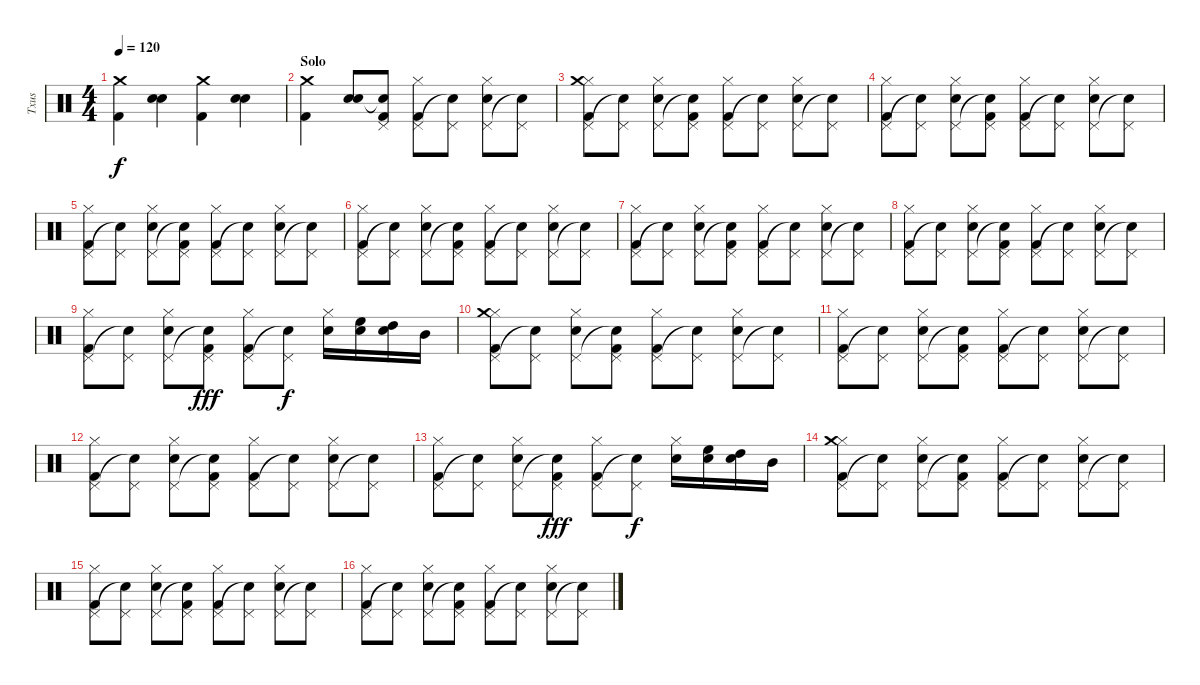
\track ("Txus" "Txus") {instrument percussion}
\staff {score}
\articulation defaults
\ts (4 4)
\tempo 120
\clef neutral
\ks c
("Crash medium (hit)" "Kick (hit) 2").4{dy f} ("Snare (hit) 2" "Snare (hit) 2").4 ("Crash medium (hit)" "Kick (hit) 2").4 ("Snare (hit) 2" "Snare (hit) 2").4 |
\section ("" "Solo")
("Crash medium (hit)" "Kick (hit) 2").4 ("Snare (hit) 2" "Snare (hit) 2").8 ("Pedal Hi-Hat (hit)" "Snare (hit)"{t} "Kick (hit) 2").8 ("Hi-Hat (closed)" "Pedal Hi-Hat (hit)" "Kick (hit) 2").8 ("Pedal Hi-Hat (hit)" "Snare (hit)"{t}).8 ("Hi-Hat (closed)" "Pedal Hi-Hat (hit)" "Snare (hit) 2").8 ("Pedal Hi-Hat (hit)" "Snare (hit) 2"{t}).8 |
("Hi-Hat (closed)" "Pedal Hi-Hat (hit)" "Crash medium (hit)" "Kick (hit) 2").8 ("Pedal Hi-Hat (hit)" "Snare (hit)"{t}).8 ("Hi-Hat (closed)" "Pedal Hi-Hat (hit)" "Snare (hit) 2").8 ("Pedal Hi-Hat (hit)" "Snare (hit)"{t} "Kick (hit) 2").8 ("Hi-Hat (closed)" "Pedal Hi-Hat (hit)" "Kick (hit) 2").8 ("Pedal Hi-Hat (hit)" "Snare (hit)"{t}).8 ("Hi-Hat (closed)" "Pedal Hi-Hat (hit)" "Snare (hit) 2").8 ("Pedal Hi-Hat (hit)" "Snare (hit) 2"{t}).8 |
("Hi-Hat (closed)" "Pedal Hi-Hat (hit)" "Kick (hit) 2").8 ("Pedal Hi-Hat (hit)" "Snare (hit)"{t}).8 ("Hi-Hat (closed)" "Pedal Hi-Hat (hit)" "Snare (hit) 2").8 ("Pedal Hi-Hat (hit)" "Snare (hit)"{t} "Kick (hit) 2").8 ("Hi-Hat (closed)" "Pedal Hi-Hat (hit)" "Kick (hit) 2").8 ("Pedal Hi-Hat (hit)" "Snare (hit)"{t}).8 ("Hi-Hat (closed)" "Pedal Hi-Hat (hit)" "Snare (hit) 2").8 ("Pedal Hi-Hat (hit)" "Snare (hit) 2"{t}).8 |
("Hi-Hat (closed)" "Pedal Hi-Hat (hit)" "Kick (hit) 2").8 ("Pedal Hi-Hat (hit)" "Snare (hit)"{t}).8 ("Hi-Hat (closed)" "Pedal Hi-Hat (hit)" "Snare (hit) 2").8 ("Pedal Hi-Hat (hit)" "Snare (hit)"{t} "Kick (hit) 2").8 ("Hi-Hat (closed)" "Pedal Hi-Hat (hit)" "Kick (hit) 2").8 ("Pedal Hi-Hat (hit)" "Snare (hit)"{t}).8 ("Hi-Hat (closed)" "Pedal Hi-Hat (hit)" "Snare (hit) 2").8 ("Pedal Hi-Hat (hit)" "Snare (hit) 2"{t}).8 |
("Hi-Hat (closed)" "Pedal Hi-Hat (hit)" "Kick (hit) 2").8 ("Pedal Hi-Hat (hit)" "Snare (hit)"{t}).8 ("Hi-Hat (closed)" "Pedal Hi-Hat (hit)" "Snare (hit) 2").8 ("Pedal Hi-Hat (hit)" "Snare (hit)"{t} "Kick (hit) 2").8 ("Hi-Hat (closed)" "Pedal Hi-Hat (hit)" "Kick (hit) 2").8 ("Pedal Hi-Hat (hit)" "Snare (hit)"{t}).8 ("Hi-Hat (closed)" "Pedal Hi-Hat (hit)" "Snare (hit) 2").8 ("Pedal Hi-Hat (hit)" "Snare (hit) 2"{t}).8 |
("Hi-Hat (closed)" "Pedal Hi-Hat (hit)" "Kick (hit) 2").8 ("Pedal Hi-Hat (hit)" "Snare (hit)"{t}).8 ("Hi-Hat (closed)" "Pedal Hi-Hat (hit)" "Snare (hit) 2").8 ("Pedal Hi-Hat (hit)" "Snare (hit)"{t} "Kick (hit) 2").8 ("Hi-Hat (closed)" "Pedal Hi-Hat (hit)" "Kick (hit) 2").8 ("Pedal Hi-Hat (hit)" "Snare (hit)"{t}).8 ("Hi-Hat (closed)" "Pedal Hi-Hat (hit)" "Snare (hit) 2").8 ("Pedal Hi-Hat (hit)" "Snare (hit) 2"{t}).8 |
("Hi-Hat (closed)" "Pedal Hi-Hat (hit)" "Kick (hit) 2").8 ("Pedal Hi-Hat (hit)" "Snare (hit)"{t}).8 ("Hi-Hat (closed)" "Pedal Hi-Hat (hit)" "Snare (hit) 2").8 ("Pedal Hi-Hat (hit)" "Snare (hit)"{t} "Kick (hit) 2").8 ("Hi-Hat (closed)" "Pedal Hi-Hat (hit)" "Kick (hit) 2").8 ("Pedal Hi-Hat (hit)" "Snare (hit)"{t}).8 ("Hi-Hat (closed)" "Pedal Hi-Hat (hit)" "Snare (hit) 2").8 ("Pedal Hi-Hat (hit)" "Snare (hit) 2"{t}).8 |
("Hi-Hat (closed)" "Pedal Hi-Hat (hit)" "Kick (hit) 2").8 ("Pedal Hi-Hat (hit)" "Snare (hit)"{t}).8 ("Hi-Hat (closed)" "Pedal Hi-Hat (hit)" "Snare (hit) 2").8 ("Pedal Hi-Hat (hit)" "Snare (hit)"{t} "Kick (hit) 2").8{dy fff} ("Hi-Hat (closed)" "Pedal Hi-Hat (hit)" "Kick (hit) 2").8 ("Pedal Hi-Hat (hit)" "Snare (hit)"{t}).8{dy f} ("Hi-Hat (closed)" "Electric Snare (hit)").16 ("High Floor Tom (hit)" "Snare (hit) 2").16 ("High Tom (hit)" "Snare (hit) 2").16 "Mid Tom (hit)".16 |
("Hi-Hat (closed)" "Pedal Hi-Hat (hit)" "Crash medium (hit)" "Kick (hit) 2").8 ("Pedal Hi-Hat (hit)" "Snare (hit)"{t}).8 ("Hi-Hat (closed)" "Pedal Hi-Hat (hit)" "Snare (hit) 2").8 ("Pedal Hi-Hat (hit)" "Snare (hit)"{t} "Kick (hit) 2").8 ("Hi-Hat (closed)" "Pedal Hi-Hat (hit)" "Kick (hit) 2").8 ("Pedal Hi-Hat (hit)" "Snare (hit)"{t}).8 ("Hi-Hat (closed)" "Pedal Hi-Hat (hit)" "Snare (hit) 2").8 ("Pedal Hi-Hat (hit)" "Snare (hit) 2"{t}).8 |
("Hi-Hat (closed)" "Pedal Hi-Hat (hit)" "Kick (hit) 2").8 ("Pedal Hi-Hat (hit)" "Snare (hit)"{t}).8 ("Hi-Hat (closed)" "Pedal Hi-Hat (hit)" "Snare (hit) 2").8 ("Pedal Hi-Hat (hit)" "Snare (hit)"{t} "Kick (hit) 2").8 ("Hi-Hat (closed)" "Pedal Hi-Hat (hit)" "Kick (hit) 2").8 ("Pedal Hi-Hat (hit)" "Snare (hit)"{t}).8 ("Hi-Hat (closed)" "Pedal Hi-Hat (hit)" "Snare (hit) 2").8 ("Pedal Hi-Hat (hit)" "Snare (hit) 2"{t}).8 |
("Hi-Hat (closed)" "Pedal Hi-Hat (hit)" "Kick (hit) 2").8 ("Pedal Hi-Hat (hit)" "Snare (hit)"{t}).8 ("Hi-Hat (closed)" "Pedal Hi-Hat (hit)" "Snare (hit) 2").8 ("Pedal Hi-Hat (hit)" "Snare (hit)"{t} "Kick (hit) 2").8 ("Hi-Hat (closed)" "Pedal Hi-Hat (hit)" "Kick (hit) 2").8 ("Pedal Hi-Hat (hit)" "Snare (hit)"{t}).8 ("Hi-Hat (closed)" "Pedal Hi-Hat (hit)" "Snare (hit) 2").8 ("Pedal Hi-Hat (hit)" "Snare (hit) 2"{t}).8 |
("Hi-Hat (closed)" "Pedal Hi-Hat (hit)" "Kick (hit) 2").8 ("Pedal Hi-Hat (hit)" "Snare (hit)"{t}).8 ("Hi-Hat (closed)" "Pedal Hi-Hat (hit)" "Snare (hit) 2").8 ("Pedal Hi-Hat (hit)" "Snare (hit)"{t} "Kick (hit) 2").8{dy fff} ("Hi-Hat (closed)" "Pedal Hi-Hat (hit)" "Kick (hit) 2").8 ("Pedal Hi-Hat (hit)" "Snare (hit)"{t}).8{dy f} ("Hi-Hat (closed)" "Electric Snare (hit)").16 ("High Floor Tom (hit)" "Snare (hit) 2").16 ("High Tom (hit)" "Snare (hit) 2").16 "Mid Tom (hit)".16 |
("Hi-Hat (closed)" "Pedal Hi-Hat (hit)" "Crash medium (hit)" "Kick (hit) 2").8 ("Pedal Hi-Hat (hit)" "Snare (hit)"{t}).8 ("Hi-Hat (closed)" "Pedal Hi-Hat (hit)" "Snare (hit) 2").8 ("Pedal Hi-Hat (hit)" "Snare (hit)"{t} "Kick (hit) 2").8 ("Hi-Hat (closed)" "Pedal Hi-Hat (hit)" "Kick (hit) 2").8 ("Pedal Hi-Hat (hit)" "Snare (hit)"{t}).8 ("Hi-Hat (closed)" "Pedal Hi-Hat (hit)" "Snare (hit) 2").8 ("Pedal Hi-Hat (hit)" "Snare (hit) 2"{t}).8 |
("Hi-Hat (closed)" "Pedal Hi-Hat (hit)" "Kick (hit) 2").8 ("Pedal Hi-Hat (hit)" "Snare (hit)"{t}).8 ("Hi-Hat (closed)" "Pedal Hi-Hat (hit)" "Snare (hit) 2").8 ("Pedal Hi-Hat (hit)" "Snare (hit)"{t} "Kick (hit) 2").8 ("Hi-Hat (closed)" "Pedal Hi-Hat (hit)" "Kick (hit) 2").8 ("Pedal Hi-Hat (hit)" "Snare (hit)"{t}).8 ("Hi-Hat (closed)" "Pedal Hi-Hat (hit)" "Snare (hit) 2").8 ("Pedal Hi-Hat (hit)" "Snare (hit) 2"{t}).8 |
("Hi-Hat (closed)" "Pedal Hi-Hat (hit)" "Kick (hit) 2").8 ("Pedal Hi-Hat (hit)" "Snare (hit)"{t}).8 ("Hi-Hat (closed)" "Pedal Hi-Hat (hit)" "Snare (hit) 2").8 ("Pedal Hi-Hat (hit)" "Snare (hit)"{t} "Kick (hit) 2").8 ("Hi-Hat (closed)" "Pedal Hi-Hat (hit)" "Kick (hit) 2").8 ("Pedal Hi-Hat (hit)" "Snare (hit)"{t}).8 ("Hi-Hat (closed)" "Pedal Hi-Hat (hit)" "Snare (hit) 2").8 ("Pedal Hi-Hat (hit)" "Snare (hit) 2"{t}).8
